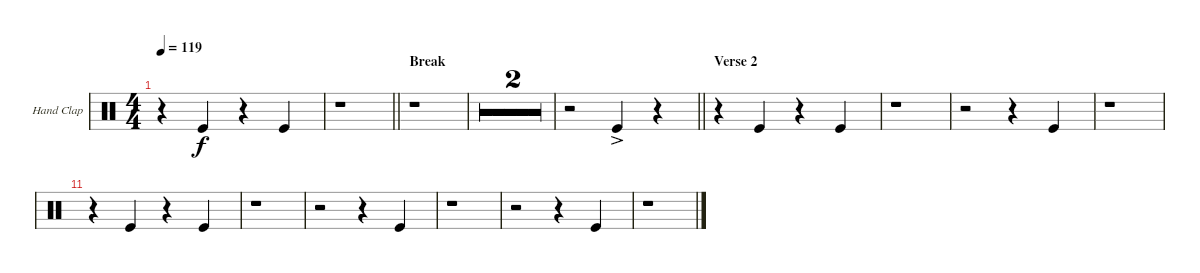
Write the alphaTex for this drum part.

\defaultSystemsLayout 4
\bracketExtendMode groupsimilarinstruments
\useSystemSignSeparator
\multiBarRest
\multiTrackTrackNamePolicy allsystems
\firstSystemTrackNameMode fullname
\firstSystemTrackNameOrientation horizontal
\otherSystemsTrackNameOrientation horizontal
\defaultBarNumberDisplay FirstOfSystem
\track ("Hand Clap" "H-Clap") {multiBarRest instrument percussion}
\staff {score}
\articulation defaults
\ts (4 4)
\tempo 119
\clef neutral
\ks aminor
r.4{dy f} "Kick (hit)".4 r.4 "Kick (hit)".4 |
\barLineRight lightlight
r.1 |
\section ("" "Break")
r.1 |
r.1 |
r.1 |
\barLineRight lightlight
r.2 "Kick (hit)"{ac}.4 r.4 |
\section ("" "Verse 2")
r.4 "Kick (hit)".4 r.4 "Kick (hit)".4 |
r.1 |
r.2 r.4 "Kick (hit)".4 |
r.1 |
r.4 "Kick (hit)".4 r.4 "Kick (hit)".4 |
r.1 |
r.2 r.4 "Kick (hit)".4 |
r.1 |
r.2 r.4 "Kick (hit)".4 |
r.1
